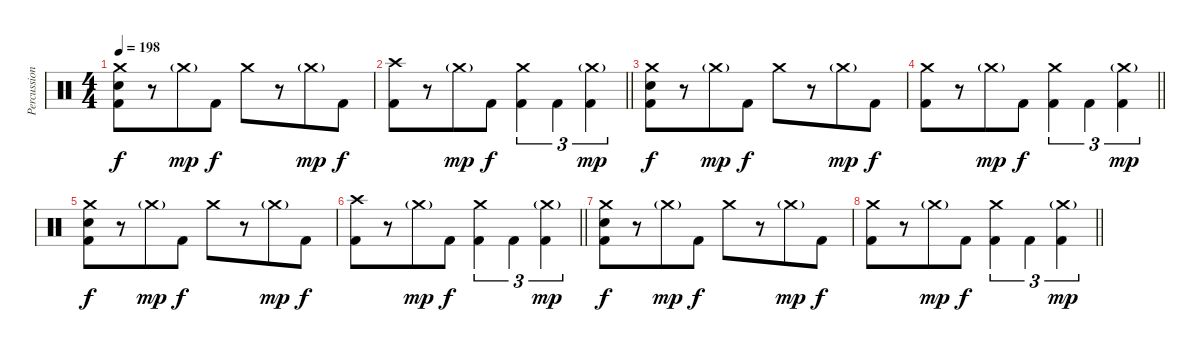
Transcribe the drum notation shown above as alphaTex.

\track ("Percussion" "Percussion") {instrument percussion}
\staff {score}
\articulation defaults
\ts (4 4)
\tempo 198
\clef neutral
\ks c
("Crash medium (hit)" "Electric Snare (hit)" "Kick (hit) 2").8{dy f beam merge} r.8 "Crash medium (hit)"{g}.8{dy mp} "Kick (hit) 2".8{dy f} "Crash medium (hit)".8{beam merge} r.8{beam merge} "Crash medium (hit)"{g}.8{dy mp} "Kick (hit) 2".8{dy f} |
\barLineRight lightlight
("Crash high (hit)" "Kick (hit) 2").8{beam merge} r.8 "Crash medium (hit)"{g}.8{dy mp} "Kick (hit) 2".8{dy f} ("Crash medium (hit)" "Kick (hit) 2").4{tu (3 2) beam merge} "Kick (hit) 2".4{tu (3 2) beam merge} ("Crash medium (hit)"{g} "Kick (hit) 2").4{tu (3 2) dy mp} |
("Crash medium (hit)" "Electric Snare (hit)" "Kick (hit) 2").8{dy f beam merge} r.8 "Crash medium (hit)"{g}.8{dy mp} "Kick (hit) 2".8{dy f} "Crash medium (hit)".8{beam merge} r.8{beam merge} "Crash medium (hit)"{g}.8{dy mp} "Kick (hit) 2".8{dy f} |
\barLineRight lightlight
("Crash medium (hit)" "Kick (hit) 2").8{beam merge} r.8 "Crash medium (hit)"{g}.8{dy mp} "Kick (hit) 2".8{dy f} ("Crash medium (hit)" "Kick (hit) 2").4{tu (3 2) beam merge} "Kick (hit) 2".4{tu (3 2) beam merge} ("Crash medium (hit)"{g} "Kick (hit) 2").4{tu (3 2) dy mp} |
("Crash medium (hit)" "Electric Snare (hit)" "Kick (hit) 2").8{dy f beam merge} r.8 "Crash medium (hit)"{g}.8{dy mp} "Kick (hit) 2".8{dy f} "Crash medium (hit)".8{beam merge} r.8{beam merge} "Crash medium (hit)"{g}.8{dy mp} "Kick (hit) 2".8{dy f} |
\barLineRight lightlight
("Crash high (hit)" "Kick (hit) 2").8{beam merge} r.8 "Crash medium (hit)"{g}.8{dy mp} "Kick (hit) 2".8{dy f} ("Crash medium (hit)" "Kick (hit) 2").4{tu (3 2) beam merge} "Kick (hit) 2".4{tu (3 2) beam merge} ("Crash medium (hit)"{g} "Kick (hit) 2").4{tu (3 2) dy mp} |
("Crash medium (hit)" "Electric Snare (hit)" "Kick (hit) 2").8{dy f beam merge} r.8 "Crash medium (hit)"{g}.8{dy mp} "Kick (hit) 2".8{dy f} "Crash medium (hit)".8{beam merge} r.8{beam merge} "Crash medium (hit)"{g}.8{dy mp} "Kick (hit) 2".8{dy f} |
\barLineRight lightlight
("Crash medium (hit)" "Kick (hit) 2").8{beam merge} r.8 "Crash medium (hit)"{g}.8{dy mp} "Kick (hit) 2".8{dy f} ("Crash medium (hit)" "Kick (hit) 2").4{tu (3 2) beam merge} "Kick (hit) 2".4{tu (3 2) beam merge} ("Crash medium (hit)"{g} "Kick (hit) 2").4{tu (3 2) dy mp}
